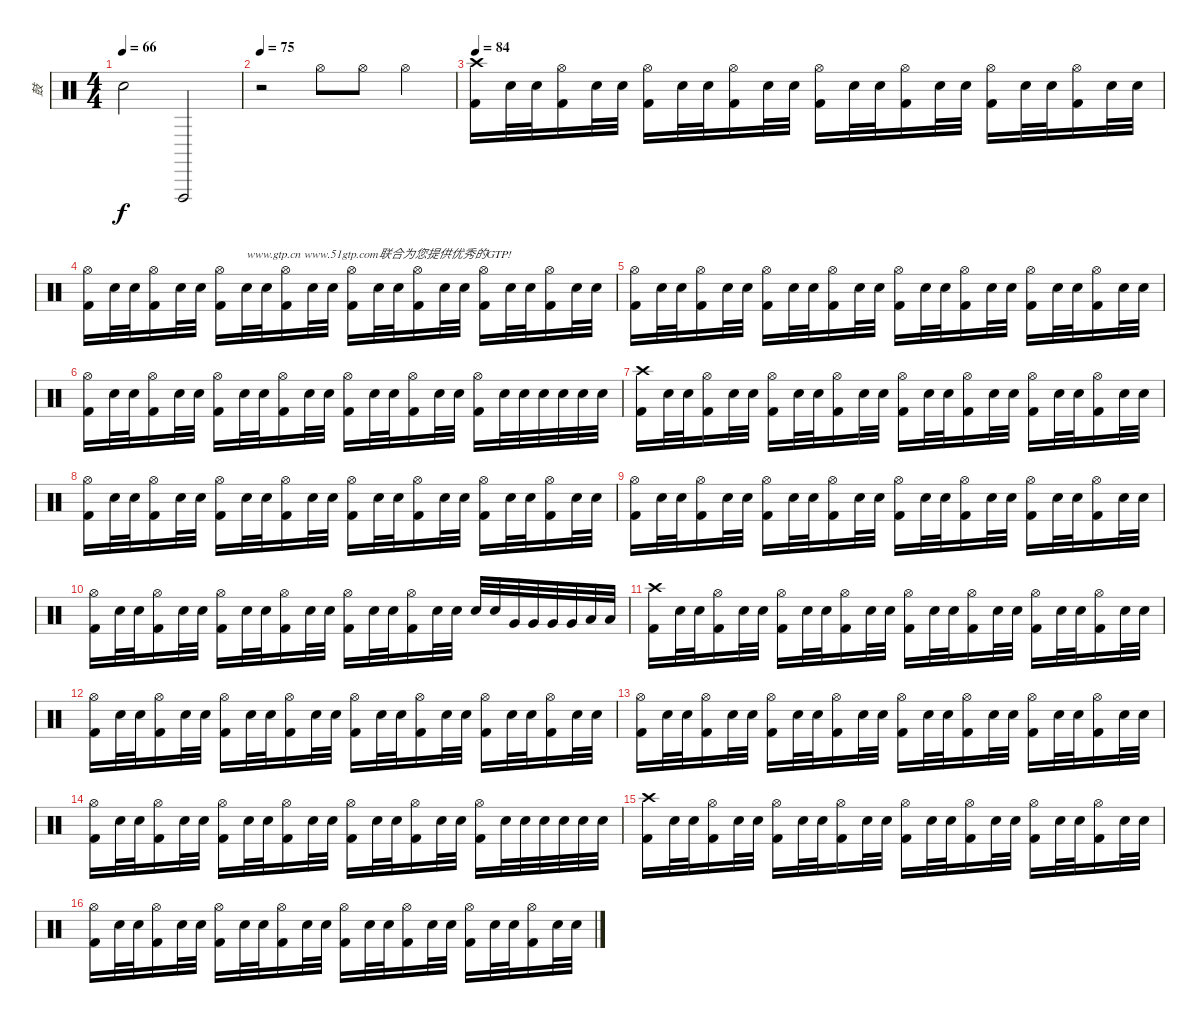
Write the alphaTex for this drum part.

\track ("鼓" "鼓") {instrument percussion}
\staff {score}
\articulation defaults
\ts (4 4)
\tempo 66
\clef neutral
\ks c "Snare (hit)"{t}.2{dy f} "Vibraslap (hit)".2
|
\tempo 75
r.2 "Hi-Hat (open)".8 "Hi-Hat (open)".8 "Hi-Hat (open)".4 |
\tempo 84
("Crash high (hit)" "Kick (hit) 2").16 "Electric Snare (hit)".32 "Electric Snare (hit)".32 ("Hi-Hat (open)" "Kick (hit) 2").16 "Electric Snare (hit)".32 "Electric Snare (hit)".32 ("Hi-Hat (open)" "Kick (hit) 2").16 "Electric Snare (hit)".32 "Electric Snare (hit)".32 ("Hi-Hat (open)" "Kick (hit) 2").16 "Electric Snare (hit)".32 "Electric Snare (hit)".32 ("Hi-Hat (open)" "Kick (hit) 2").16 "Electric Snare (hit)".32 "Electric Snare (hit)".32 ("Hi-Hat (open)" "Kick (hit) 2").16 "Electric Snare (hit)".32 "Electric Snare (hit)".32 ("Hi-Hat (open)" "Kick (hit) 2").16 "Electric Snare (hit)".32 "Electric Snare (hit)".32 ("Hi-Hat (open)" "Kick (hit) 2").16 "Electric Snare (hit)".32 "Electric Snare (hit)".32 |
("Hi-Hat (open)" "Kick (hit) 2").16 "Electric Snare (hit)".32 "Electric Snare (hit)".32 ("Hi-Hat (open)" "Kick (hit) 2").16 "Electric Snare (hit)".32 "Electric Snare (hit)".32 ("Hi-Hat (open)" "Kick (hit) 2").16 "Electric Snare (hit)".32{txt "www.gtp.cn www.51gtp.com联合为您提供优秀的GTP!"} "Electric Snare (hit)".32 ("Hi-Hat (open)" "Kick (hit) 2").16 "Electric Snare (hit)".32 "Electric Snare (hit)".32 ("Hi-Hat (open)" "Kick (hit) 2").16 "Electric Snare (hit)".32 "Electric Snare (hit)".32 ("Hi-Hat (open)" "Kick (hit) 2").16 "Electric Snare (hit)".32 "Electric Snare (hit)".32 ("Hi-Hat (open)" "Kick (hit) 2").16 "Electric Snare (hit)".32 "Electric Snare (hit)".32 ("Hi-Hat (open)" "Kick (hit) 2").16 "Electric Snare (hit)".32 "Electric Snare (hit)".32 |
("Hi-Hat (open)" "Kick (hit) 2").16 "Electric Snare (hit)".32 "Electric Snare (hit)".32 ("Hi-Hat (open)" "Kick (hit) 2").16 "Electric Snare (hit)".32 "Electric Snare (hit)".32 ("Hi-Hat (open)" "Kick (hit) 2").16 "Electric Snare (hit)".32 "Electric Snare (hit)".32 ("Hi-Hat (open)" "Kick (hit) 2").16 "Electric Snare (hit)".32 "Electric Snare (hit)".32 ("Hi-Hat (open)" "Kick (hit) 2").16 "Electric Snare (hit)".32 "Electric Snare (hit)".32 ("Hi-Hat (open)" "Kick (hit) 2").16 "Electric Snare (hit)".32 "Electric Snare (hit)".32 ("Hi-Hat (open)" "Kick (hit) 2").16 "Electric Snare (hit)".32 "Electric Snare (hit)".32 ("Hi-Hat (open)" "Kick (hit) 2").16 "Electric Snare (hit)".32 "Electric Snare (hit)".32 |
("Hi-Hat (open)" "Kick (hit) 2").16 "Electric Snare (hit)".32 "Electric Snare (hit)".32 ("Hi-Hat (open)" "Kick (hit) 2").16 "Electric Snare (hit)".32 "Electric Snare (hit)".32 ("Hi-Hat (open)" "Kick (hit) 2").16 "Electric Snare (hit)".32 "Electric Snare (hit)".32 ("Hi-Hat (open)" "Kick (hit) 2").16 "Electric Snare (hit)".32 "Electric Snare (hit)".32 ("Hi-Hat (open)" "Kick (hit) 2").16 "Electric Snare (hit)".32 "Electric Snare (hit)".32 ("Hi-Hat (open)" "Kick (hit) 2").16 "Electric Snare (hit)".32 "Electric Snare (hit)".32 ("Hi-Hat (open)" "Kick (hit) 2").16 "Electric Snare (hit)".32 "Electric Snare (hit)".32 "Electric Snare (hit)".32 "Electric Snare (hit)".32 "Electric Snare (hit)".32 "Electric Snare (hit)".32 |
("Crash high (hit)" "Kick (hit) 2").16 "Electric Snare (hit)".32 "Electric Snare (hit)".32 ("Hi-Hat (open)" "Kick (hit) 2").16 "Electric Snare (hit)".32 "Electric Snare (hit)".32 ("Hi-Hat (open)" "Kick (hit) 2").16 "Electric Snare (hit)".32 "Electric Snare (hit)".32 ("Hi-Hat (open)" "Kick (hit) 2").16 "Electric Snare (hit)".32 "Electric Snare (hit)".32 ("Hi-Hat (open)" "Kick (hit) 2").16 "Electric Snare (hit)".32 "Electric Snare (hit)".32 ("Hi-Hat (open)" "Kick (hit) 2").16 "Electric Snare (hit)".32 "Electric Snare (hit)".32 ("Hi-Hat (open)" "Kick (hit) 2").16 "Electric Snare (hit)".32 "Electric Snare (hit)".32 ("Hi-Hat (open)" "Kick (hit) 2").16 "Electric Snare (hit)".32 "Electric Snare (hit)".32 |
("Hi-Hat (open)" "Kick (hit) 2").16 "Electric Snare (hit)".32 "Electric Snare (hit)".32 ("Hi-Hat (open)" "Kick (hit) 2").16 "Electric Snare (hit)".32 "Electric Snare (hit)".32 ("Hi-Hat (open)" "Kick (hit) 2").16 "Electric Snare (hit)".32 "Electric Snare (hit)".32 ("Hi-Hat (open)" "Kick (hit) 2").16 "Electric Snare (hit)".32 "Electric Snare (hit)".32 ("Hi-Hat (open)" "Kick (hit) 2").16 "Electric Snare (hit)".32 "Electric Snare (hit)".32 ("Hi-Hat (open)" "Kick (hit) 2").16 "Electric Snare (hit)".32 "Electric Snare (hit)".32 ("Hi-Hat (open)" "Kick (hit) 2").16 "Electric Snare (hit)".32 "Electric Snare (hit)".32 ("Hi-Hat (open)" "Kick (hit) 2").16 "Electric Snare (hit)".32 "Electric Snare (hit)".32 |
("Hi-Hat (open)" "Kick (hit) 2").16 "Electric Snare (hit)".32 "Electric Snare (hit)".32 ("Hi-Hat (open)" "Kick (hit) 2").16 "Electric Snare (hit)".32 "Electric Snare (hit)".32 ("Hi-Hat (open)" "Kick (hit) 2").16 "Electric Snare (hit)".32 "Electric Snare (hit)".32 ("Hi-Hat (open)" "Kick (hit) 2").16 "Electric Snare (hit)".32 "Electric Snare (hit)".32 ("Hi-Hat (open)" "Kick (hit) 2").16 "Electric Snare (hit)".32 "Electric Snare (hit)".32 ("Hi-Hat (open)" "Kick (hit) 2").16 "Electric Snare (hit)".32 "Electric Snare (hit)".32 ("Hi-Hat (open)" "Kick (hit) 2").16 "Electric Snare (hit)".32 "Electric Snare (hit)".32 ("Hi-Hat (open)" "Kick (hit) 2").16 "Electric Snare (hit)".32 "Electric Snare (hit)".32 |
("Hi-Hat (open)" "Kick (hit) 2").16 "Electric Snare (hit)".32 "Electric Snare (hit)".32 ("Hi-Hat (open)" "Kick (hit) 2").16 "Electric Snare (hit)".32 "Electric Snare (hit)".32 ("Hi-Hat (open)" "Kick (hit) 2").16 "Electric Snare (hit)".32 "Electric Snare (hit)".32 ("Hi-Hat (open)" "Kick (hit) 2").16 "Electric Snare (hit)".32 "Electric Snare (hit)".32 ("Hi-Hat (open)" "Kick (hit) 2").16 "Electric Snare (hit)".32 "Electric Snare (hit)".32 ("Hi-Hat (open)" "Kick (hit) 2").16 "Electric Snare (hit)".32 "Electric Snare (hit)".32 "Electric Snare (hit)".32 "Electric Snare (hit)".32 "Very Low Tom (hit)".32 "Very Low Tom (hit)".32 "Very Low Tom (hit)".32 "Very Low Tom (hit)".32 "Low Floor Tom (hit)".32 "Low Floor Tom (hit)".32 |
("Crash high (hit)" "Kick (hit) 2").16 "Electric Snare (hit)".32 "Electric Snare (hit)".32 ("Hi-Hat (open)" "Kick (hit) 2").16 "Electric Snare (hit)".32 "Electric Snare (hit)".32 ("Hi-Hat (open)" "Kick (hit) 2").16 "Electric Snare (hit)".32 "Electric Snare (hit)".32 ("Hi-Hat (open)" "Kick (hit) 2").16 "Electric Snare (hit)".32 "Electric Snare (hit)".32 ("Hi-Hat (open)" "Kick (hit) 2").16 "Electric Snare (hit)".32 "Electric Snare (hit)".32 ("Hi-Hat (open)" "Kick (hit) 2").16 "Electric Snare (hit)".32 "Electric Snare (hit)".32 ("Hi-Hat (open)" "Kick (hit) 2").16 "Electric Snare (hit)".32 "Electric Snare (hit)".32 ("Hi-Hat (open)" "Kick (hit) 2").16 "Electric Snare (hit)".32 "Electric Snare (hit)".32 |
("Hi-Hat (open)" "Kick (hit) 2").16 "Electric Snare (hit)".32 "Electric Snare (hit)".32 ("Hi-Hat (open)" "Kick (hit) 2").16 "Electric Snare (hit)".32 "Electric Snare (hit)".32 ("Hi-Hat (open)" "Kick (hit) 2").16 "Electric Snare (hit)".32 "Electric Snare (hit)".32 ("Hi-Hat (open)" "Kick (hit) 2").16 "Electric Snare (hit)".32 "Electric Snare (hit)".32 ("Hi-Hat (open)" "Kick (hit) 2").16 "Electric Snare (hit)".32 "Electric Snare (hit)".32 ("Hi-Hat (open)" "Kick (hit) 2").16 "Electric Snare (hit)".32 "Electric Snare (hit)".32 ("Hi-Hat (open)" "Kick (hit) 2").16 "Electric Snare (hit)".32 "Electric Snare (hit)".32 ("Hi-Hat (open)" "Kick (hit) 2").16 "Electric Snare (hit)".32 "Electric Snare (hit)".32 |
("Hi-Hat (open)" "Kick (hit) 2").16 "Electric Snare (hit)".32 "Electric Snare (hit)".32 ("Hi-Hat (open)" "Kick (hit) 2").16 "Electric Snare (hit)".32 "Electric Snare (hit)".32 ("Hi-Hat (open)" "Kick (hit) 2").16 "Electric Snare (hit)".32 "Electric Snare (hit)".32 ("Hi-Hat (open)" "Kick (hit) 2").16 "Electric Snare (hit)".32 "Electric Snare (hit)".32 ("Hi-Hat (open)" "Kick (hit) 2").16 "Electric Snare (hit)".32 "Electric Snare (hit)".32 ("Hi-Hat (open)" "Kick (hit) 2").16 "Electric Snare (hit)".32 "Electric Snare (hit)".32 ("Hi-Hat (open)" "Kick (hit) 2").16 "Electric Snare (hit)".32 "Electric Snare (hit)".32 ("Hi-Hat (open)" "Kick (hit) 2").16 "Electric Snare (hit)".32 "Electric Snare (hit)".32 |
("Hi-Hat (open)" "Kick (hit) 2").16 "Electric Snare (hit)".32 "Electric Snare (hit)".32 ("Hi-Hat (open)" "Kick (hit) 2").16 "Electric Snare (hit)".32 "Electric Snare (hit)".32 ("Hi-Hat (open)" "Kick (hit) 2").16 "Electric Snare (hit)".32 "Electric Snare (hit)".32 ("Hi-Hat (open)" "Kick (hit) 2").16 "Electric Snare (hit)".32 "Electric Snare (hit)".32 ("Hi-Hat (open)" "Kick (hit) 2").16 "Electric Snare (hit)".32 "Electric Snare (hit)".32 ("Hi-Hat (open)" "Kick (hit) 2").16 "Electric Snare (hit)".32 "Electric Snare (hit)".32 ("Hi-Hat (open)" "Kick (hit) 2").16 "Electric Snare (hit)".32 "Electric Snare (hit)".32 "Electric Snare (hit)".32 "Electric Snare (hit)".32 "Electric Snare (hit)".32 "Electric Snare (hit)".32 |
("Crash high (hit)" "Kick (hit) 2").16 "Electric Snare (hit)".32 "Electric Snare (hit)".32 ("Hi-Hat (open)" "Kick (hit) 2").16 "Electric Snare (hit)".32 "Electric Snare (hit)".32 ("Hi-Hat (open)" "Kick (hit) 2").16 "Electric Snare (hit)".32 "Electric Snare (hit)".32 ("Hi-Hat (open)" "Kick (hit) 2").16 "Electric Snare (hit)".32 "Electric Snare (hit)".32 ("Hi-Hat (open)" "Kick (hit) 2").16 "Electric Snare (hit)".32 "Electric Snare (hit)".32 ("Hi-Hat (open)" "Kick (hit) 2").16 "Electric Snare (hit)".32 "Electric Snare (hit)".32 ("Hi-Hat (open)" "Kick (hit) 2").16 "Electric Snare (hit)".32 "Electric Snare (hit)".32 ("Hi-Hat (open)" "Kick (hit) 2").16 "Electric Snare (hit)".32 "Electric Snare (hit)".32 |
("Hi-Hat (open)" "Kick (hit) 2").16 "Electric Snare (hit)".32 "Electric Snare (hit)".32 ("Hi-Hat (open)" "Kick (hit) 2").16 "Electric Snare (hit)".32 "Electric Snare (hit)".32 ("Hi-Hat (open)" "Kick (hit) 2").16 "Electric Snare (hit)".32 "Electric Snare (hit)".32 ("Hi-Hat (open)" "Kick (hit) 2").16 "Electric Snare (hit)".32 "Electric Snare (hit)".32 ("Hi-Hat (open)" "Kick (hit) 2").16 "Electric Snare (hit)".32 "Electric Snare (hit)".32 ("Hi-Hat (open)" "Kick (hit) 2").16 "Electric Snare (hit)".32 "Electric Snare (hit)".32 ("Hi-Hat (open)" "Kick (hit) 2").16 "Electric Snare (hit)".32 "Electric Snare (hit)".32 ("Hi-Hat (open)" "Kick (hit) 2").16 "Electric Snare (hit)".32 "Electric Snare (hit)".32
